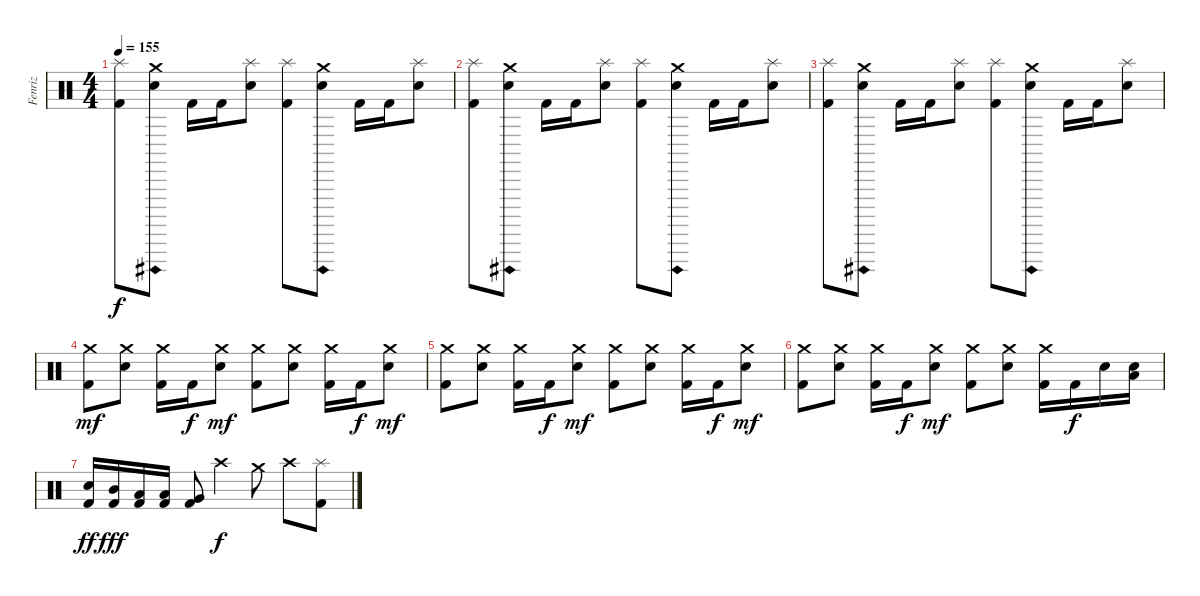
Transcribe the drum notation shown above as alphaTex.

\track ("Fenriz" "Fenriz") {instrument percussion}
\staff {score}
\articulation defaults
\ts (4 4)
\tempo 155
\clef neutral
\ks c
("Kick (hit) 2" "Splash (hit)").8{dy f} ("Electric Snare (hit)" "Crash medium (hit)"{ah 12}).8 "Kick (hit) 2".16 "Kick (hit) 2".16 ("Electric Snare (hit)" "Splash (hit)").8 ("Kick (hit) 2" "Splash (hit)").8 ("Electric Snare (hit)" "Crash medium (hit)"{ah 12}).8 "Kick (hit) 2".16 "Kick (hit) 2".16 ("Electric Snare (hit)" "Splash (hit)").8 |
("Kick (hit) 2" "Splash (hit)").8 ("Electric Snare (hit)" "Crash medium (hit)"{ah 12}).8 "Kick (hit) 2".16 "Kick (hit) 2".16 ("Electric Snare (hit)" "Splash (hit)").8 ("Kick (hit) 2" "Splash (hit)").8 ("Electric Snare (hit)" "Crash medium (hit)"{ah 12}).8 "Kick (hit) 2".16 "Kick (hit) 2".16 ("Electric Snare (hit)" "Splash (hit)").8 |
("Kick (hit) 2" "Splash (hit)").8 ("Electric Snare (hit)" "Crash medium (hit)"{ah 12}).8 "Kick (hit) 2".16 "Kick (hit) 2".16 ("Electric Snare (hit)" "Splash (hit)").8 ("Kick (hit) 2" "Splash (hit)").8 ("Electric Snare (hit)" "Crash medium (hit)"{ah 12}).8 "Kick (hit) 2".16 "Kick (hit) 2".16 ("Electric Snare (hit)" "Splash (hit)").8 |
("Kick (hit) 2" "Crash medium (hit)").8{dy mf} ("Electric Snare (hit)" "Crash medium (hit)").8 ("Kick (hit) 2" "Crash medium (hit)").16 "Kick (hit) 2".16{dy f} ("Electric Snare (hit)" "Crash medium (hit)").8{dy mf} ("Kick (hit) 2" "Crash medium (hit)").8 ("Electric Snare (hit)" "Crash medium (hit)").8 ("Kick (hit) 2" "Crash medium (hit)").16 "Kick (hit) 2".16{dy f} ("Electric Snare (hit)" "Crash medium (hit)").8{dy mf} |
("Kick (hit) 2" "Crash medium (hit)").8 ("Electric Snare (hit)" "Crash medium (hit)").8 ("Kick (hit) 2" "Crash medium (hit)").16 "Kick (hit) 2".16{dy f} ("Electric Snare (hit)" "Crash medium (hit)").8{dy mf} ("Kick (hit) 2" "Crash medium (hit)").8 ("Electric Snare (hit)" "Crash medium (hit)").8 ("Kick (hit) 2" "Crash medium (hit)").16 "Kick (hit) 2".16{dy f} ("Electric Snare (hit)" "Crash medium (hit)").8{dy mf} |
("Kick (hit) 2" "Crash medium (hit)").8 ("Electric Snare (hit)" "Crash medium (hit)").8 ("Kick (hit) 2" "Crash medium (hit)").16 "Kick (hit) 2".16{dy f} ("Electric Snare (hit)" "Crash medium (hit)").8{dy mf} ("Kick (hit) 2" "Crash medium (hit)").8 ("Electric Snare (hit)" "Crash medium (hit)").8 ("Kick (hit) 2" "Crash medium (hit)").16 "Kick (hit) 2".16{dy f} "Electric Snare (hit)".16 ("Electric Snare (hit)" "Low Tom (hit)").16 |
("Kick (hit) 2" "Electric Snare (hit)").16{dy ff} ("Kick (hit) 2" "Mid Tom (hit)").16{dy fff} ("Kick (hit) 2" "Low Tom (hit)").16 ("Kick (hit) 2" "Low Tom (hit)").16 ("Kick (hit) 2" "Very Low Tom (hit)").8 "Crash high (hit)".4{dy f} "Crash medium (hit)".8 "Crash high (hit)".8 ("Kick (hit) 2" "Splash (hit)").8
